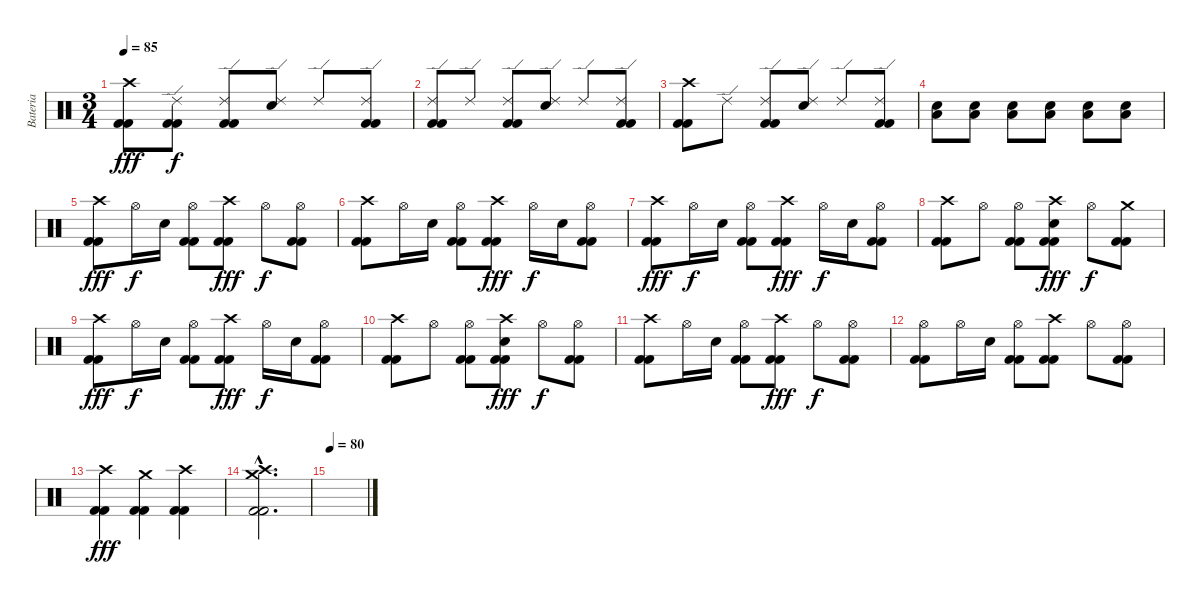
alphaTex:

\track ("Bateria" "Bateria") {instrument percussion}
\staff {score}
\articulation defaults
\ts (3 4)
\tempo 85
\clef neutral
\ks c
("Crash high (hit)" "Kick (hit) 2" "Kick (hit) 2").8{dy fff} ("Ride (edge) 2" "Kick (hit) 2" "Kick (hit) 2").8{dy f} ("Ride (edge) 2" "Kick (hit) 2" "Kick (hit) 2").8 ("Ride (edge) 2" "Electric Snare (hit)").8 "Ride (edge) 2".8 ("Ride (edge) 2" "Kick (hit) 2" "Kick (hit) 2").8 |
("Ride (edge) 2" "Kick (hit) 2" "Kick (hit) 2").8 "Ride (edge) 2".8 ("Ride (edge) 2" "Kick (hit) 2" "Kick (hit) 2").8 ("Ride (edge) 2" "Electric Snare (hit)").8 "Ride (edge) 2".8 ("Ride (edge) 2" "Kick (hit) 2" "Kick (hit) 2").8 |
("Crash high (hit)" "Kick (hit) 2" "Kick (hit) 2").8 "Ride (edge) 2".8 ("Ride (edge) 2" "Kick (hit) 2" "Kick (hit) 2").8 ("Ride (edge) 2" "Electric Snare (hit)").8 "Ride (edge) 2".8 ("Ride (edge) 2" "Kick (hit) 2" "Kick (hit) 2").8 |
("Low Tom (hit)" "Electric Snare (hit)").8 ("Low Tom (hit)" "Electric Snare (hit)").8 ("Low Tom (hit)" "Electric Snare (hit)").8 ("Low Tom (hit)" "Electric Snare (hit)").8 ("Low Tom (hit)" "Electric Snare (hit)").8 ("Low Tom (hit)" "Electric Snare (hit)").8 |
("Crash high (hit)" "Kick (hit) 2" "Kick (hit) 2").8{dy fff} "Hi-Hat (open)".16{dy f} "Electric Snare (hit)".16 ("Hi-Hat (open)" "Kick (hit) 2" "Kick (hit) 2").8 ("Crash high (hit)" "Kick (hit) 2" "Kick (hit) 2").8{dy fff} "Hi-Hat (open)".8{dy f} ("Hi-Hat (open)" "Kick (hit) 2" "Kick (hit) 2").8 |
("Crash high (hit)" "Kick (hit) 2" "Kick (hit) 2").8 "Hi-Hat (open)".16 "Electric Snare (hit)".16 ("Hi-Hat (open)" "Kick (hit) 2" "Kick (hit) 2").8 ("Crash high (hit)" "Kick (hit) 2" "Kick (hit) 2").8{dy fff} "Hi-Hat (open)".16{dy f} "Electric Snare (hit)".16 ("Hi-Hat (open)" "Kick (hit) 2" "Kick (hit) 2").8 |
("Crash high (hit)" "Kick (hit) 2" "Kick (hit) 2").8{dy fff} "Hi-Hat (open)".16{dy f} "Electric Snare (hit)".16 ("Hi-Hat (open)" "Kick (hit) 2" "Kick (hit) 2").8 ("Crash high (hit)" "Kick (hit) 2" "Kick (hit) 2").8{dy fff} "Hi-Hat (open)".16{dy f} "Electric Snare (hit)".16 ("Hi-Hat (open)" "Kick (hit) 2" "Kick (hit) 2").8 |
("Crash high (hit)" "Kick (hit) 2" "Kick (hit) 2").8 "Hi-Hat (open)".8 ("Hi-Hat (open)" "Kick (hit) 2" "Kick (hit) 2").8 ("Crash high (hit)" "Electric Snare (hit)" "Kick (hit) 2" "Kick (hit) 2").8{dy fff} "Hi-Hat (open)".8{dy f} ("Crash medium (hit)" "Kick (hit) 2" "Kick (hit) 2").8 |
("Crash high (hit)" "Kick (hit) 2" "Kick (hit) 2").8{dy fff} "Hi-Hat (open)".16{dy f} "Electric Snare (hit)".16 ("Hi-Hat (open)" "Kick (hit) 2" "Kick (hit) 2").8 ("Crash high (hit)" "Kick (hit) 2" "Kick (hit) 2").8{dy fff} "Hi-Hat (open)".16{dy f} "Electric Snare (hit)".16 ("Hi-Hat (open)" "Kick (hit) 2" "Kick (hit) 2").8 |
("Crash high (hit)" "Kick (hit) 2" "Kick (hit) 2").8 "Hi-Hat (open)".8 ("Hi-Hat (open)" "Kick (hit) 2" "Kick (hit) 2").8 ("Crash high (hit)" "Electric Snare (hit)" "Kick (hit) 2" "Kick (hit) 2").8{dy fff} "Hi-Hat (open)".8{dy f} ("Hi-Hat (open)" "Kick (hit) 2" "Kick (hit) 2").8 |
("Crash high (hit)" "Kick (hit) 2" "Kick (hit) 2").8 "Hi-Hat (open)".16 "Electric Snare (hit)".16 ("Hi-Hat (open)" "Kick (hit) 2" "Kick (hit) 2").8 ("Crash high (hit)" "Kick (hit) 2" "Kick (hit) 2").8{dy fff} "Hi-Hat (open)".8{dy f} ("Hi-Hat (open)" "Kick (hit) 2" "Kick (hit) 2").8 |
("Hi-Hat (open)" "Kick (hit) 2" "Kick (hit) 2").8 "Hi-Hat (open)".16 "Electric Snare (hit)".16 ("Hi-Hat (open)" "Kick (hit) 2" "Kick (hit) 2").8 ("Crash high (hit)" "Kick (hit) 2" "Kick (hit) 2").8 "Hi-Hat (open)".8 ("Hi-Hat (open)" "Kick (hit) 2" "Kick (hit) 2").8 |
("Crash high (hit)" "Kick (hit) 2" "Kick (hit) 2").4{dy fff} ("Crash medium (hit)" "Kick (hit) 2" "Kick (hit) 2").4 ("Crash high (hit)" "Kick (hit) 2" "Kick (hit) 2").4 |
("Crash high (hit)"{hac} "Crash medium (hit)"{hac} "Kick (hit) 2"{hac} "Kick (hit) 2"{hac}).2{d} |
\tempo 80
